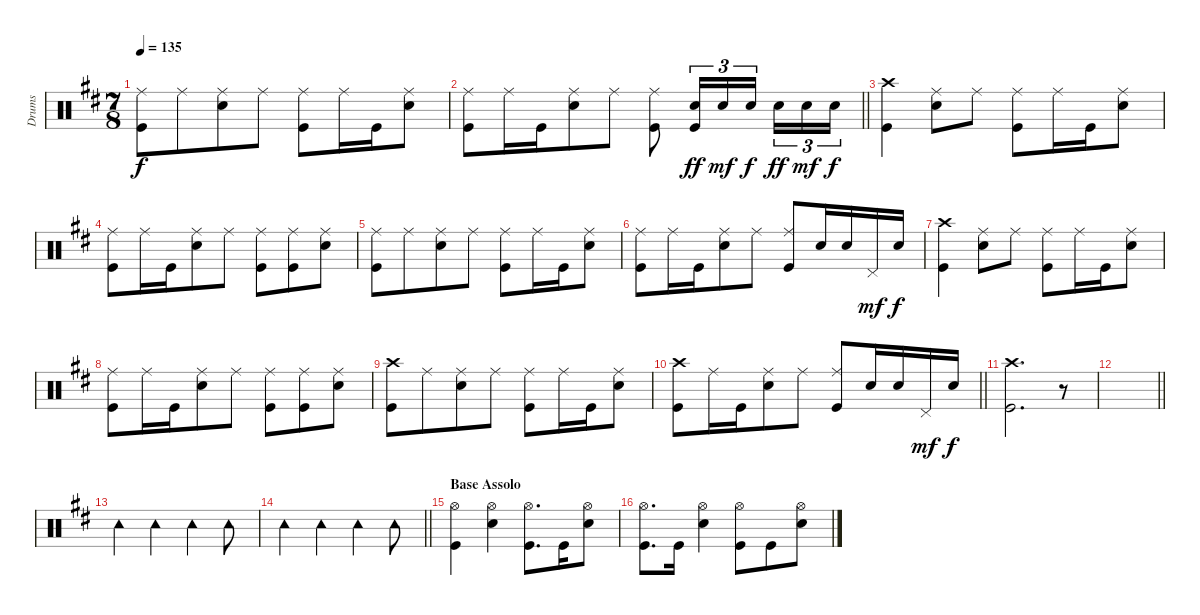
\track ("Drums" "Drums") {instrument percussion}
\staff {score}
\articulation defaults
\ts (7 8)
\tempo 135
\clef neutral
\ks d
("Ride (middle)" "Kick (hit)").8{dy f} "Ride (middle)".8 ("Ride (middle)" "Snare (hit) 2").8 "Ride (middle)".8 ("Ride (middle)" "Kick (hit)").8 "Ride (middle)".16 "Kick (hit)".16 ("Ride (middle)" "Snare (hit) 2").8 |
\barLineRight lightlight
("Ride (middle)" "Kick (hit)").8 "Ride (middle)".16 "Kick (hit)".16 ("Ride (middle)" "Snare (hit) 2").8 "Ride (middle)".8 ("Ride (middle)" "Kick (hit)").8 ("Snare (hit) 2" "Kick (hit)").16{tu (3 2) dy ff} "Snare (hit) 2".16{tu (3 2) dy mf} "Snare (hit) 2".16{tu (3 2) dy f} "Snare (hit) 2".16{tu (3 2) dy ff} "Snare (hit) 2".16{tu (3 2) dy mf} "Snare (hit) 2".16{tu (3 2) dy f} |
("Crash high (hit)" "Kick (hit)").4 ("Ride (middle)" "Snare (hit) 2").8 "Ride (middle)".8 ("Ride (middle)" "Kick (hit)").8 "Ride (middle)".16 "Kick (hit)".16 ("Ride (middle)" "Snare (hit) 2").8 |
("Ride (middle)" "Kick (hit)").8 "Ride (middle)".16 "Kick (hit)".16 ("Ride (middle)" "Snare (hit) 2").8 "Ride (middle)".8 ("Ride (middle)" "Kick (hit)").8 ("Ride (middle)" "Kick (hit)").8 ("Ride (middle)" "Snare (hit) 2").8 |
("Ride (middle)" "Kick (hit)").8 "Ride (middle)".8 ("Ride (middle)" "Snare (hit) 2").8 "Ride (middle)".8 ("Ride (middle)" "Kick (hit)").8 "Ride (middle)".16 "Kick (hit)".16 ("Ride (middle)" "Snare (hit) 2").8 |
("Ride (middle)" "Kick (hit)").8 "Ride (middle)".16 "Kick (hit)".16 ("Ride (middle)" "Snare (hit) 2").8 "Ride (middle)".8 ("Ride (middle)" "Kick (hit)").8 "Snare (hit) 2".16 "Snare (hit) 2".16 "Pedal Hi-Hat (hit)".16{dy mf} "Snare (hit) 2".16{dy f} |
("Crash high (hit)" "Kick (hit)").4 ("Ride (middle)" "Snare (hit) 2").8 "Ride (middle)".8 ("Ride (middle)" "Kick (hit)").8 "Ride (middle)".16 "Kick (hit)".16 ("Ride (middle)" "Snare (hit) 2").8 |
("Ride (middle)" "Kick (hit)").8 "Ride (middle)".16 "Kick (hit)".16 ("Ride (middle)" "Snare (hit) 2").8 "Ride (middle)".8 ("Ride (middle)" "Kick (hit)").8 ("Ride (middle)" "Kick (hit)").8 ("Ride (middle)" "Snare (hit) 2").8 |
("Crash high (hit)" "Kick (hit)").8 "Ride (middle)".8 ("Ride (middle)" "Snare (hit) 2").8 "Ride (middle)".8 ("Ride (middle)" "Kick (hit)").8 "Ride (middle)".16 "Kick (hit)".16 ("Ride (middle)" "Snare (hit) 2").8 |
\barLineRight lightlight
("Crash high (hit)" "Kick (hit)").8 "Ride (middle)".16 "Kick (hit)".16 ("Ride (middle)" "Snare (hit) 2").8 "Ride (middle)".8 ("Ride (middle)" "Kick (hit)").8 "Snare (hit) 2".16 "Snare (hit) 2".16 "Pedal Hi-Hat (hit)".16{dy mf} "Snare (hit) 2".16{dy f} |
("Crash high (hit)" "Kick (hit)").2{d} r.8 |
\barLineRight lightlight
|
"Tambourine (hit)".4 "Tambourine (hit)".4 "Tambourine (hit)".4 "Tambourine (hit)".8 |
\barLineRight lightlight "Tambourine (hit)".4 "Tambourine (hit)".4 "Tambourine (hit)".4 "Tambourine (hit)".8
|
\section ("" "Base Assolo")
("Hi-Hat (open)" "Kick (hit)").4 ("Hi-Hat (open)" "Snare (hit) 2").4 ("Hi-Hat (open)" "Kick (hit)").8{d} "Kick (hit)".16 ("Hi-Hat (open)" "Snare (hit) 2").8 |
("Hi-Hat (open)" "Kick (hit)").8{d} "Kick (hit)".16 ("Hi-Hat (open)" "Snare (hit) 2").4 ("Hi-Hat (open)" "Kick (hit)").8 "Kick (hit)".8 ("Hi-Hat (open)" "Snare (hit) 2").8
